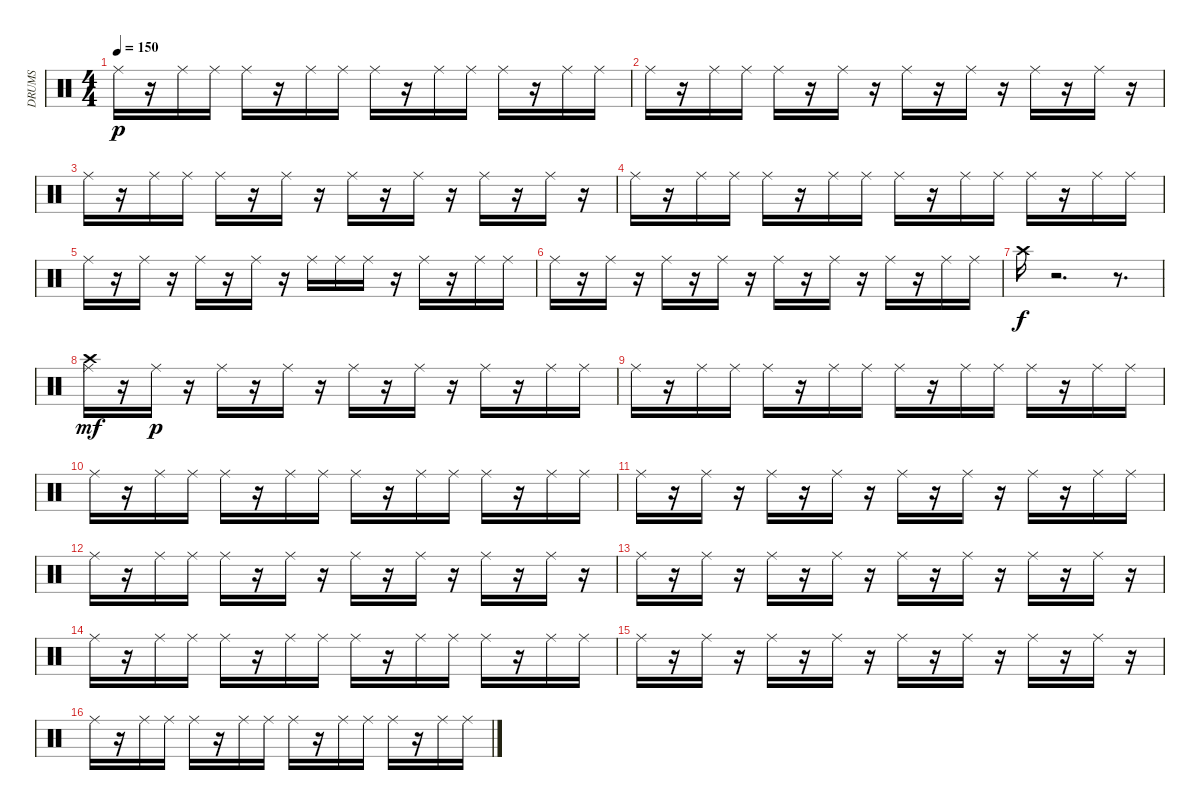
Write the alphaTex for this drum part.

\track ("DRUMS" "DRUMS") {instrument percussion}
\staff {score}
\articulation defaults
\ts (4 4)
\tempo 150
\clef neutral
\ks c "Ride (middle)".16{dy p}
r.16 "Ride (middle)".16 "Ride (middle)".16 "Ride (middle)".16 r.16 "Ride (middle)".16 "Ride (middle)".16 "Ride (middle)".16 r.16 "Ride (middle)".16 "Ride (middle)".16 "Ride (middle)".16 r.16 "Ride (middle)".16 "Ride (middle)".16 |
"Ride (middle)".16 r.16 "Ride (middle)".16 "Ride (middle)".16 "Ride (middle)".16 r.16 "Ride (middle)".16 r.16 "Ride (middle)".16 r.16 "Ride (middle)".16 r.16 "Ride (middle)".16 r.16 "Ride (middle)".16 r.16 |
"Ride (middle)".16 r.16 "Ride (middle)".16 "Ride (middle)".16 "Ride (middle)".16 r.16 "Ride (middle)".16 r.16 "Ride (middle)".16 r.16 "Ride (middle)".16 r.16 "Ride (middle)".16 r.16 "Ride (middle)".16 r.16 |
"Ride (middle)".16 r.16 "Ride (middle)".16 "Ride (middle)".16 "Ride (middle)".16 r.16 "Ride (middle)".16 "Ride (middle)".16 "Ride (middle)".16 r.16 "Ride (middle)".16 "Ride (middle)".16 "Ride (middle)".16 r.16 "Ride (middle)".16 "Ride (middle)".16 |
"Ride (middle)".16 r.16 "Ride (middle)".16 r.16 "Ride (middle)".16 r.16 "Ride (middle)".16 r.16 "Ride (middle)".16 "Ride (middle)".16 "Ride (middle)".16 r.16 "Ride (middle)".16 r.16 "Ride (middle)".16 "Ride (middle)".16 |
"Ride (middle)".16 r.16 "Ride (middle)".16 r.16 "Ride (middle)".16 r.16 "Ride (middle)".16 r.16 "Ride (middle)".16 r.16 "Ride (middle)".16 r.16 "Ride (middle)".16 r.16 "Ride (middle)".16 "Ride (middle)".16 |
"Crash high (hit)".16{dy f} r.2{d} r.8{d} |
("Ride (middle)" "Crash high (hit)").16{dy mf} r.16 "Ride (middle)".16{dy p} r.16 "Ride (middle)".16 r.16 "Ride (middle)".16 r.16 "Ride (middle)".16 r.16 "Ride (middle)".16 r.16 "Ride (middle)".16 r.16 "Ride (middle)".16 "Ride (middle)".16 |
"Ride (middle)".16 r.16 "Ride (middle)".16 "Ride (middle)".16 "Ride (middle)".16 r.16 "Ride (middle)".16 "Ride (middle)".16 "Ride (middle)".16 r.16 "Ride (middle)".16 "Ride (middle)".16 "Ride (middle)".16 r.16 "Ride (middle)".16 "Ride (middle)".16 |
"Ride (middle)".16 r.16 "Ride (middle)".16 "Ride (middle)".16 "Ride (middle)".16 r.16 "Ride (middle)".16 "Ride (middle)".16 "Ride (middle)".16 r.16 "Ride (middle)".16 "Ride (middle)".16 "Ride (middle)".16 r.16 "Ride (middle)".16 "Ride (middle)".16 |
"Ride (middle)".16 r.16 "Ride (middle)".16 r.16 "Ride (middle)".16 r.16 "Ride (middle)".16 r.16 "Ride (middle)".16 r.16 "Ride (middle)".16 r.16 "Ride (middle)".16 r.16 "Ride (middle)".16 "Ride (middle)".16 |
"Ride (middle)".16 r.16 "Ride (middle)".16 "Ride (middle)".16 "Ride (middle)".16 r.16 "Ride (middle)".16 r.16 "Ride (middle)".16 r.16 "Ride (middle)".16 r.16 "Ride (middle)".16 r.16 "Ride (middle)".16 r.16 |
"Ride (middle)".16 r.16 "Ride (middle)".16 r.16 "Ride (middle)".16 r.16 "Ride (middle)".16 r.16 "Ride (middle)".16 r.16 "Ride (middle)".16 r.16 "Ride (middle)".16 r.16 "Ride (middle)".16 r.16 |
"Ride (middle)".16 r.16 "Ride (middle)".16 "Ride (middle)".16 "Ride (middle)".16 r.16 "Ride (middle)".16 "Ride (middle)".16 "Ride (middle)".16 r.16 "Ride (middle)".16 "Ride (middle)".16 "Ride (middle)".16 r.16 "Ride (middle)".16 "Ride (middle)".16 |
"Ride (middle)".16 r.16 "Ride (middle)".16 r.16 "Ride (middle)".16 r.16 "Ride (middle)".16 r.16 "Ride (middle)".16 r.16 "Ride (middle)".16 r.16 "Ride (middle)".16 r.16 "Ride (middle)".16 r.16 |
"Ride (middle)".16 r.16 "Ride (middle)".16 "Ride (middle)".16 "Ride (middle)".16 r.16 "Ride (middle)".16 "Ride (middle)".16 "Ride (middle)".16 r.16 "Ride (middle)".16 "Ride (middle)".16 "Ride (middle)".16 r.16 "Ride (middle)".16 "Ride (middle)".16
